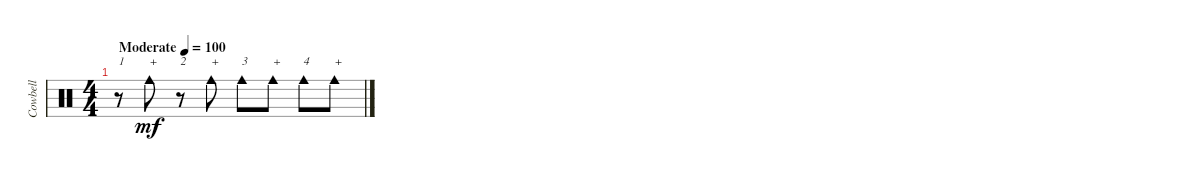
\track ("Cowbell" "Cowbell") {instrument percussion}
\staff {score}
\articulation defaults
\ts (4 4)
\tempo (100 "Moderate")
\clef neutral
\ks c
r.8{txt "1" dy mf} "Cowbell medium (hit)".8{txt "+"} r.8{txt "2"} "Cowbell medium (hit)".8{txt "+"} "Cowbell medium (hit)".8{txt "3"} "Cowbell medium (hit)".8{txt "+"} "Cowbell medium (hit)".8{txt "4"} "Cowbell medium (hit)".8{txt "+"}
